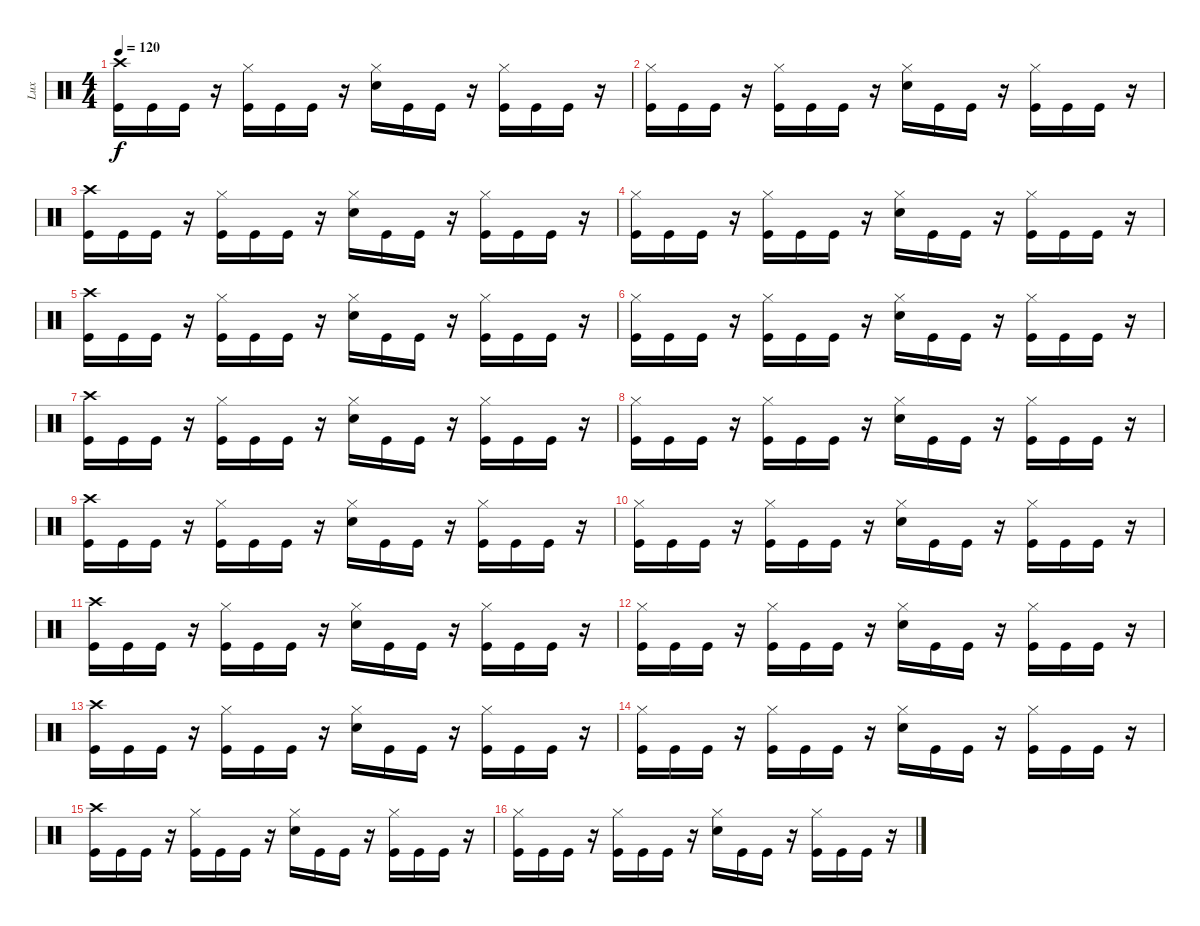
\track ("Lux" "Lux") {instrument percussion}
\staff {score}
\articulation defaults
\ts (4 4)
\tempo 120
\clef neutral
\ks c
("Crash high (hit)" "Kick (hit)").16{dy f} "Kick (hit)".16 "Kick (hit)".16 r.16 ("Hi-Hat (closed)" "Kick (hit)").16 "Kick (hit)".16 "Kick (hit)".16 r.16 ("Hi-Hat (closed)" "Snare (hit) 2").16 "Kick (hit)".16 "Kick (hit)".16 r.16 ("Hi-Hat (closed)" "Kick (hit)").16 "Kick (hit)".16 "Kick (hit)".16 r.16 |
("Hi-Hat (closed)" "Kick (hit)").16 "Kick (hit)".16 "Kick (hit)".16 r.16 ("Hi-Hat (closed)" "Kick (hit)").16 "Kick (hit)".16 "Kick (hit)".16 r.16 ("Hi-Hat (closed)" "Snare (hit) 2").16 "Kick (hit)".16 "Kick (hit)".16 r.16 ("Hi-Hat (closed)" "Kick (hit)").16 "Kick (hit)".16 "Kick (hit)".16 r.16 |
("Crash high (hit)" "Kick (hit)").16 "Kick (hit)".16 "Kick (hit)".16 r.16 ("Hi-Hat (closed)" "Kick (hit)").16 "Kick (hit)".16 "Kick (hit)".16 r.16 ("Hi-Hat (closed)" "Snare (hit) 2").16 "Kick (hit)".16 "Kick (hit)".16 r.16 ("Hi-Hat (closed)" "Kick (hit)").16 "Kick (hit)".16 "Kick (hit)".16 r.16 |
("Hi-Hat (closed)" "Kick (hit)").16 "Kick (hit)".16 "Kick (hit)".16 r.16 ("Hi-Hat (closed)" "Kick (hit)").16 "Kick (hit)".16 "Kick (hit)".16 r.16 ("Hi-Hat (closed)" "Snare (hit) 2").16 "Kick (hit)".16 "Kick (hit)".16 r.16 ("Hi-Hat (closed)" "Kick (hit)").16 "Kick (hit)".16 "Kick (hit)".16 r.16 |
("Crash high (hit)" "Kick (hit)").16 "Kick (hit)".16 "Kick (hit)".16 r.16 ("Hi-Hat (closed)" "Kick (hit)").16 "Kick (hit)".16 "Kick (hit)".16 r.16 ("Hi-Hat (closed)" "Snare (hit) 2").16 "Kick (hit)".16 "Kick (hit)".16 r.16 ("Hi-Hat (closed)" "Kick (hit)").16 "Kick (hit)".16 "Kick (hit)".16 r.16 |
("Hi-Hat (closed)" "Kick (hit)").16 "Kick (hit)".16 "Kick (hit)".16 r.16 ("Hi-Hat (closed)" "Kick (hit)").16 "Kick (hit)".16 "Kick (hit)".16 r.16 ("Hi-Hat (closed)" "Snare (hit) 2").16 "Kick (hit)".16 "Kick (hit)".16 r.16 ("Hi-Hat (closed)" "Kick (hit)").16 "Kick (hit)".16 "Kick (hit)".16 r.16 |
("Crash high (hit)" "Kick (hit)").16 "Kick (hit)".16 "Kick (hit)".16 r.16 ("Hi-Hat (closed)" "Kick (hit)").16 "Kick (hit)".16 "Kick (hit)".16 r.16 ("Hi-Hat (closed)" "Snare (hit) 2").16 "Kick (hit)".16 "Kick (hit)".16 r.16 ("Hi-Hat (closed)" "Kick (hit)").16 "Kick (hit)".16 "Kick (hit)".16 r.16 |
("Hi-Hat (closed)" "Kick (hit)").16 "Kick (hit)".16 "Kick (hit)".16 r.16 ("Hi-Hat (closed)" "Kick (hit)").16 "Kick (hit)".16 "Kick (hit)".16 r.16 ("Hi-Hat (closed)" "Snare (hit) 2").16 "Kick (hit)".16 "Kick (hit)".16 r.16 ("Hi-Hat (closed)" "Kick (hit)").16 "Kick (hit)".16 "Kick (hit)".16 r.16 |
("Crash high (hit)" "Kick (hit)").16 "Kick (hit)".16 "Kick (hit)".16 r.16 ("Hi-Hat (closed)" "Kick (hit)").16 "Kick (hit)".16 "Kick (hit)".16 r.16 ("Hi-Hat (closed)" "Snare (hit) 2").16 "Kick (hit)".16 "Kick (hit)".16 r.16 ("Hi-Hat (closed)" "Kick (hit)").16 "Kick (hit)".16 "Kick (hit)".16 r.16 |
("Hi-Hat (closed)" "Kick (hit)").16 "Kick (hit)".16 "Kick (hit)".16 r.16 ("Hi-Hat (closed)" "Kick (hit)").16 "Kick (hit)".16 "Kick (hit)".16 r.16 ("Hi-Hat (closed)" "Snare (hit) 2").16 "Kick (hit)".16 "Kick (hit)".16 r.16 ("Hi-Hat (closed)" "Kick (hit)").16 "Kick (hit)".16 "Kick (hit)".16 r.16 |
("Crash high (hit)" "Kick (hit)").16 "Kick (hit)".16 "Kick (hit)".16 r.16 ("Hi-Hat (closed)" "Kick (hit)").16 "Kick (hit)".16 "Kick (hit)".16 r.16 ("Hi-Hat (closed)" "Snare (hit) 2").16 "Kick (hit)".16 "Kick (hit)".16 r.16 ("Hi-Hat (closed)" "Kick (hit)").16 "Kick (hit)".16 "Kick (hit)".16 r.16 |
("Hi-Hat (closed)" "Kick (hit)").16 "Kick (hit)".16 "Kick (hit)".16 r.16 ("Hi-Hat (closed)" "Kick (hit)").16 "Kick (hit)".16 "Kick (hit)".16 r.16 ("Hi-Hat (closed)" "Snare (hit) 2").16 "Kick (hit)".16 "Kick (hit)".16 r.16 ("Hi-Hat (closed)" "Kick (hit)").16 "Kick (hit)".16 "Kick (hit)".16 r.16 |
("Crash high (hit)" "Kick (hit)").16 "Kick (hit)".16 "Kick (hit)".16 r.16 ("Hi-Hat (closed)" "Kick (hit)").16 "Kick (hit)".16 "Kick (hit)".16 r.16 ("Hi-Hat (closed)" "Snare (hit) 2").16 "Kick (hit)".16 "Kick (hit)".16 r.16 ("Hi-Hat (closed)" "Kick (hit)").16 "Kick (hit)".16 "Kick (hit)".16 r.16 |
("Hi-Hat (closed)" "Kick (hit)").16 "Kick (hit)".16 "Kick (hit)".16 r.16 ("Hi-Hat (closed)" "Kick (hit)").16 "Kick (hit)".16 "Kick (hit)".16 r.16 ("Hi-Hat (closed)" "Snare (hit) 2").16 "Kick (hit)".16 "Kick (hit)".16 r.16 ("Hi-Hat (closed)" "Kick (hit)").16 "Kick (hit)".16 "Kick (hit)".16 r.16 |
("Crash high (hit)" "Kick (hit)").16 "Kick (hit)".16 "Kick (hit)".16 r.16 ("Hi-Hat (closed)" "Kick (hit)").16 "Kick (hit)".16 "Kick (hit)".16 r.16 ("Hi-Hat (closed)" "Snare (hit) 2").16 "Kick (hit)".16 "Kick (hit)".16 r.16 ("Hi-Hat (closed)" "Kick (hit)").16 "Kick (hit)".16 "Kick (hit)".16 r.16 |
("Hi-Hat (closed)" "Kick (hit)").16 "Kick (hit)".16 "Kick (hit)".16 r.16 ("Hi-Hat (closed)" "Kick (hit)").16 "Kick (hit)".16 "Kick (hit)".16 r.16 ("Hi-Hat (closed)" "Snare (hit) 2").16 "Kick (hit)".16 "Kick (hit)".16 r.16 ("Hi-Hat (closed)" "Kick (hit)").16 "Kick (hit)".16 "Kick (hit)".16 r.16
